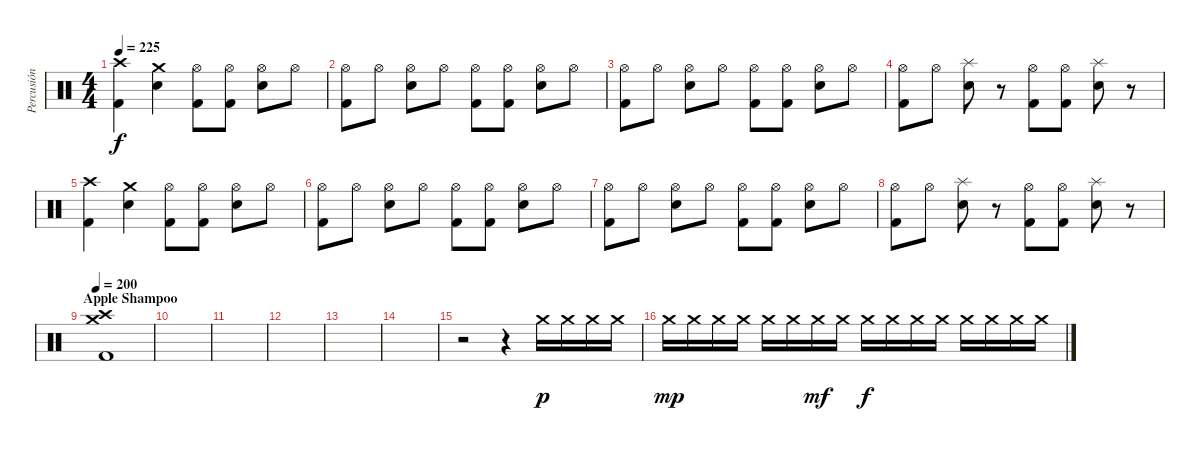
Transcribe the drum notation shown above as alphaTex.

\track ("Percusión" "Percusión") {instrument percussion}
\staff {score}
\articulation defaults
\ts (4 4)
\tempo 225
\clef neutral
\ks c
("Crash high (hit)" "Kick (hit) 2").4{dy f} ("Crash medium (hit)" "Electric Snare (hit)").4 ("Hi-Hat (open)" "Kick (hit) 2").8 ("Hi-Hat (open)" "Kick (hit) 2").8 ("Hi-Hat (open)" "Electric Snare (hit)").8 "Hi-Hat (open)".8 |
("Hi-Hat (open)" "Kick (hit) 2").8 "Hi-Hat (open)".8 ("Hi-Hat (open)" "Electric Snare (hit)").8 "Hi-Hat (open)".8 ("Hi-Hat (open)" "Kick (hit) 2").8 ("Hi-Hat (open)" "Kick (hit) 2").8 ("Hi-Hat (open)" "Electric Snare (hit)").8 "Hi-Hat (open)".8 |
("Hi-Hat (open)" "Kick (hit) 2").8 "Hi-Hat (open)".8 ("Hi-Hat (open)" "Electric Snare (hit)").8 "Hi-Hat (open)".8 ("Hi-Hat (open)" "Kick (hit) 2").8 ("Hi-Hat (open)" "Kick (hit) 2").8 ("Hi-Hat (open)" "Electric Snare (hit)").8 "Hi-Hat (open)".8 |
("Hi-Hat (open)" "Kick (hit) 2").8 "Hi-Hat (open)".8 ("Splash (hit)" "Electric Snare (hit)").8 r.8 ("Hi-Hat (open)" "Kick (hit) 2").8 ("Hi-Hat (open)" "Kick (hit) 2").8 ("Splash (hit)" "Electric Snare (hit)").8 r.8 |
("Crash high (hit)" "Kick (hit) 2").4 ("Crash medium (hit)" "Electric Snare (hit)").4 ("Hi-Hat (open)" "Kick (hit) 2").8 ("Hi-Hat (open)" "Kick (hit) 2").8 ("Hi-Hat (open)" "Electric Snare (hit)").8 "Hi-Hat (open)".8 |
("Hi-Hat (open)" "Kick (hit) 2").8 "Hi-Hat (open)".8 ("Hi-Hat (open)" "Electric Snare (hit)").8 "Hi-Hat (open)".8 ("Hi-Hat (open)" "Kick (hit) 2").8 ("Hi-Hat (open)" "Kick (hit) 2").8 ("Hi-Hat (open)" "Electric Snare (hit)").8 "Hi-Hat (open)".8 |
("Hi-Hat (open)" "Kick (hit) 2").8 "Hi-Hat (open)".8 ("Hi-Hat (open)" "Electric Snare (hit)").8 "Hi-Hat (open)".8 ("Hi-Hat (open)" "Kick (hit) 2").8 ("Hi-Hat (open)" "Kick (hit) 2").8 ("Hi-Hat (open)" "Electric Snare (hit)").8 "Hi-Hat (open)".8 |
("Hi-Hat (open)" "Kick (hit) 2").8 "Hi-Hat (open)".8 ("Splash (hit)" "Electric Snare (hit)").8 r.8 ("Hi-Hat (open)" "Kick (hit) 2").8 ("Hi-Hat (open)" "Kick (hit) 2").8 ("Splash (hit)" "Electric Snare (hit)").8 r.8 |
\section ("" "Apple Shampoo")
\tempo 200
("Crash high (hit)" "Crash medium (hit)" "Kick (hit) 2").1 |
|
|
|
|
|
r.2 r.4 "Crash medium (hit)".16{dy p} "Crash medium (hit)".16 "Crash medium (hit)".16 "Crash medium (hit)".16 |
"Crash medium (hit)".16{dy mp} "Crash medium (hit)".16 "Crash medium (hit)".16 "Crash medium (hit)".16 "Crash medium (hit)".16 "Crash medium (hit)".16 "Crash medium (hit)".16{dy mf} "Crash medium (hit)".16 "Crash medium (hit)".16{dy f} "Crash medium (hit)".16 "Crash medium (hit)".16 "Crash medium (hit)".16 "Crash medium (hit)".16 "Crash medium (hit)".16 "Crash medium (hit)".16 "Crash medium (hit)".16
